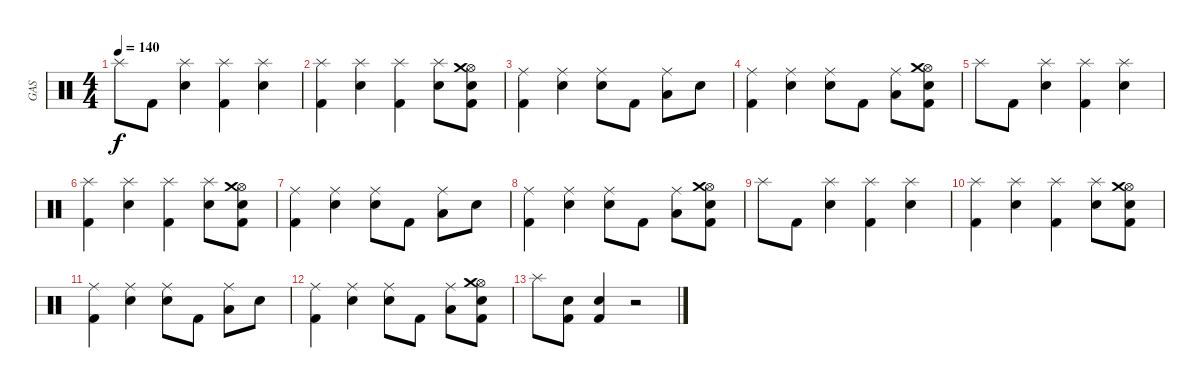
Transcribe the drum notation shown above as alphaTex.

\track ("GAS" "GAS") {instrument percussion}
\staff {score}
\articulation defaults
\ts (4 4)
\tempo 140
\clef neutral
\ks c "Splash (hit)".8{dy f} "Kick (hit) 2".8
("Electric Snare (hit)" "Splash (hit)").4 ("Kick (hit) 2" "Splash (hit)").4 ("Electric Snare (hit)" "Splash (hit)").4 |
("Kick (hit) 2" "Splash (hit)").4 ("Electric Snare (hit)" "Splash (hit)").4 ("Kick (hit) 2" "Splash (hit)").4 ("Electric Snare (hit)" "Splash (hit)").8 ("Kick (hit) 2" "Electric Snare (hit)" "Hi-Hat (open)" "Crash medium (hit)").8 |
("Kick (hit) 2" "Ride (middle)").4 ("Electric Snare (hit)" "Ride (middle)").4 ("Electric Snare (hit)" "Ride (middle)").8 "Kick (hit) 2".8 ("Low Tom (hit)" "Ride (middle)").8 "Electric Snare (hit)".8 |
("Kick (hit) 2" "Ride (middle)").4 ("Electric Snare (hit)" "Ride (middle)").4 ("Electric Snare (hit)" "Ride (middle)").8 "Kick (hit) 2".8 ("Low Tom (hit)" "Ride (middle)").8 ("Kick (hit) 2" "Electric Snare (hit)" "Hi-Hat (open)" "Crash medium (hit)").8 |
"Splash (hit)".8 "Kick (hit) 2".8 ("Electric Snare (hit)" "Splash (hit)").4 ("Kick (hit) 2" "Splash (hit)").4 ("Electric Snare (hit)" "Splash (hit)").4 |
("Kick (hit) 2" "Splash (hit)").4 ("Electric Snare (hit)" "Splash (hit)").4 ("Kick (hit) 2" "Splash (hit)").4 ("Electric Snare (hit)" "Splash (hit)").8 ("Kick (hit) 2" "Electric Snare (hit)" "Hi-Hat (open)" "Crash medium (hit)").8 |
("Kick (hit) 2" "Ride (middle)").4 ("Electric Snare (hit)" "Ride (middle)").4 ("Electric Snare (hit)" "Ride (middle)").8 "Kick (hit) 2".8 ("Low Tom (hit)" "Ride (middle)").8 "Electric Snare (hit)".8 |
("Kick (hit) 2" "Ride (middle)").4 ("Electric Snare (hit)" "Ride (middle)").4 ("Electric Snare (hit)" "Ride (middle)").8 "Kick (hit) 2".8 ("Low Tom (hit)" "Ride (middle)").8 ("Kick (hit) 2" "Electric Snare (hit)" "Hi-Hat (open)" "Crash medium (hit)").8 |
"Splash (hit)".8 "Kick (hit) 2".8 ("Electric Snare (hit)" "Splash (hit)").4 ("Kick (hit) 2" "Splash (hit)").4 ("Electric Snare (hit)" "Splash (hit)").4 |
("Kick (hit) 2" "Splash (hit)").4 ("Electric Snare (hit)" "Splash (hit)").4 ("Kick (hit) 2" "Splash (hit)").4 ("Electric Snare (hit)" "Splash (hit)").8 ("Kick (hit) 2" "Electric Snare (hit)" "Hi-Hat (open)" "Crash medium (hit)").8 |
("Kick (hit) 2" "Ride (middle)").4 ("Electric Snare (hit)" "Ride (middle)").4 ("Electric Snare (hit)" "Ride (middle)").8 "Kick (hit) 2".8 ("Low Tom (hit)" "Ride (middle)").8 "Electric Snare (hit)".8 |
("Kick (hit) 2" "Ride (middle)").4 ("Electric Snare (hit)" "Ride (middle)").4 ("Electric Snare (hit)" "Ride (middle)").8 "Kick (hit) 2".8 ("Low Tom (hit)" "Ride (middle)").8 ("Kick (hit) 2" "Electric Snare (hit)" "Hi-Hat (open)" "Crash medium (hit)").8 |
"Splash (hit)".8 ("Kick (hit) 2" "Electric Snare (hit)").8 ("Kick (hit) 2" "Electric Snare (hit)").4 r.2
